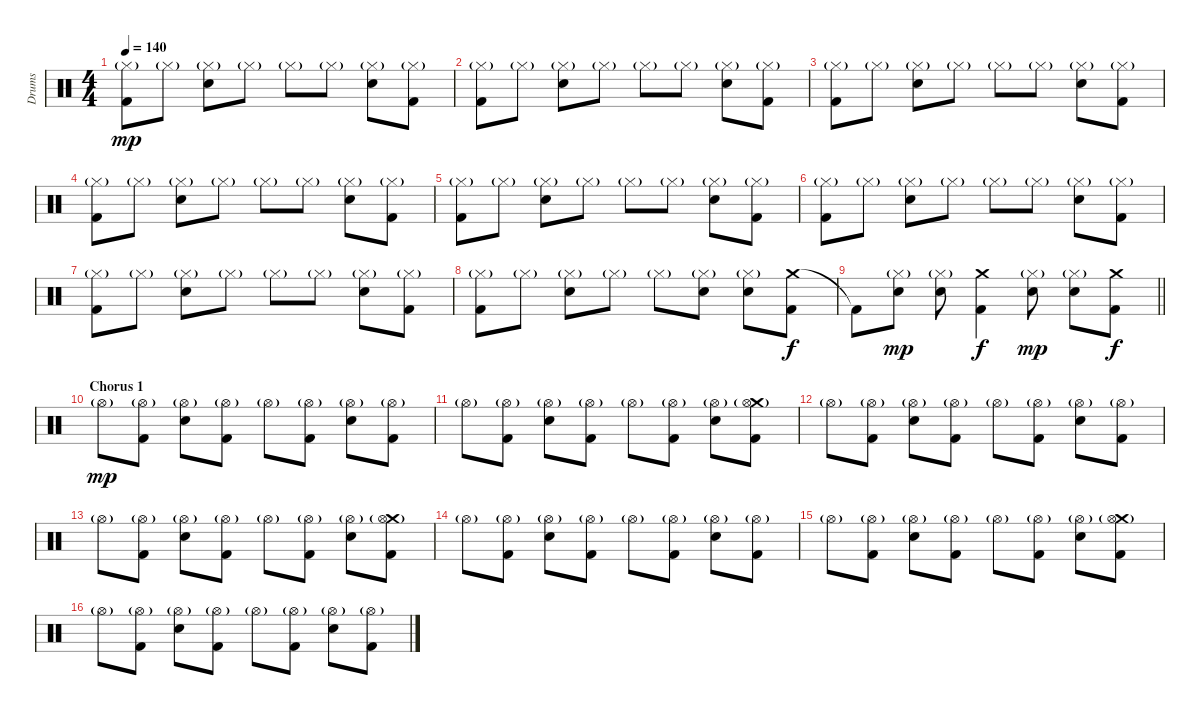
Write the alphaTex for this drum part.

\track ("Drums" "Drums") {instrument percussion}
\staff {score}
\articulation defaults
\ts (4 4)
\tempo 140
\clef neutral
\ks c
("Hi-Hat (closed)"{g} "Kick (hit) 2").8{dy mp} "Hi-Hat (closed)"{g}.8 ("Hi-Hat (closed)"{g} "Electric Snare (hit)").8 "Hi-Hat (closed)"{g}.8 "Hi-Hat (closed)"{g}.8 "Hi-Hat (closed)"{g}.8 ("Hi-Hat (closed)"{g} "Electric Snare (hit)").8 ("Hi-Hat (closed)"{g} "Kick (hit) 2").8 |
("Hi-Hat (closed)"{g} "Kick (hit) 2").8 "Hi-Hat (closed)"{g}.8 ("Hi-Hat (closed)"{g} "Electric Snare (hit)").8 "Hi-Hat (closed)"{g}.8 "Hi-Hat (closed)"{g}.8 "Hi-Hat (closed)"{g}.8 ("Hi-Hat (closed)"{g} "Electric Snare (hit)").8 ("Hi-Hat (closed)"{g} "Kick (hit) 2").8 |
("Hi-Hat (closed)"{g} "Kick (hit) 2").8 "Hi-Hat (closed)"{g}.8 ("Hi-Hat (closed)"{g} "Electric Snare (hit)").8 "Hi-Hat (closed)"{g}.8 "Hi-Hat (closed)"{g}.8 "Hi-Hat (closed)"{g}.8 ("Hi-Hat (closed)"{g} "Electric Snare (hit)").8 ("Hi-Hat (closed)"{g} "Kick (hit) 2").8 |
("Hi-Hat (closed)"{g} "Kick (hit) 2").8 "Hi-Hat (closed)"{g}.8 ("Hi-Hat (closed)"{g} "Electric Snare (hit)").8 "Hi-Hat (closed)"{g}.8 "Hi-Hat (closed)"{g}.8 "Hi-Hat (closed)"{g}.8 ("Hi-Hat (closed)"{g} "Electric Snare (hit)").8 ("Hi-Hat (closed)"{g} "Kick (hit) 2").8 |
("Hi-Hat (closed)"{g} "Kick (hit) 2").8 "Hi-Hat (closed)"{g}.8 ("Hi-Hat (closed)"{g} "Electric Snare (hit)").8 "Hi-Hat (closed)"{g}.8 "Hi-Hat (closed)"{g}.8 "Hi-Hat (closed)"{g}.8 ("Hi-Hat (closed)"{g} "Electric Snare (hit)").8 ("Hi-Hat (closed)"{g} "Kick (hit) 2").8 |
("Hi-Hat (closed)"{g} "Kick (hit) 2").8 "Hi-Hat (closed)"{g}.8 ("Hi-Hat (closed)"{g} "Electric Snare (hit)").8 "Hi-Hat (closed)"{g}.8 "Hi-Hat (closed)"{g}.8 "Hi-Hat (closed)"{g}.8 ("Hi-Hat (closed)"{g} "Electric Snare (hit)").8 ("Hi-Hat (closed)"{g} "Kick (hit) 2").8 |
("Hi-Hat (closed)"{g} "Kick (hit) 2").8 "Hi-Hat (closed)"{g}.8 ("Hi-Hat (closed)"{g} "Electric Snare (hit)").8 "Hi-Hat (closed)"{g}.8 "Hi-Hat (closed)"{g}.8 "Hi-Hat (closed)"{g}.8 ("Hi-Hat (closed)"{g} "Electric Snare (hit)").8 ("Hi-Hat (closed)"{g} "Kick (hit) 2").8 |
("Hi-Hat (closed)"{g} "Kick (hit) 2").8 "Hi-Hat (closed)"{g}.8 ("Hi-Hat (closed)"{g} "Electric Snare (hit)").8 "Hi-Hat (closed)"{g}.8 "Hi-Hat (closed)"{g}.8 ("Hi-Hat (closed)"{g} "Electric Snare (hit)").8 ("Hi-Hat (closed)"{g} "Electric Snare (hit)").8 ("Crash medium (hit)" "Kick (hit) 2").8{dy f} |
\barLineRight lightlight "Kick (hit) 2"{t}.8
("Hi-Hat (closed)"{g} "Electric Snare (hit)").8{dy mp} ("Hi-Hat (closed)"{g} "Electric Snare (hit)").8 ("Crash medium (hit)" "Kick (hit) 2").4{dy f} ("Hi-Hat (closed)"{g} "Electric Snare (hit)").8{dy mp} ("Hi-Hat (closed)"{g} "Electric Snare (hit)").8 ("Crash medium (hit)" "Kick (hit) 2").8{dy f} |
\section ("" "Chorus 1")
"Hi-Hat (open)"{g}.8{dy mp} ("Hi-Hat (open)"{g} "Kick (hit) 2").8 ("Hi-Hat (open)"{g} "Electric Snare (hit)").8 ("Hi-Hat (open)"{g} "Kick (hit) 2").8 "Hi-Hat (open)"{g}.8 ("Hi-Hat (open)"{g} "Kick (hit) 2").8 ("Hi-Hat (open)"{g} "Electric Snare (hit)").8 ("Hi-Hat (open)"{g} "Kick (hit) 2").8 |
"Hi-Hat (open)"{g}.8 ("Hi-Hat (open)"{g} "Kick (hit) 2").8 ("Hi-Hat (open)"{g} "Electric Snare (hit)").8 ("Hi-Hat (open)"{g} "Kick (hit) 2").8 "Hi-Hat (open)"{g}.8 ("Hi-Hat (open)"{g} "Kick (hit) 2").8 ("Hi-Hat (open)"{g} "Electric Snare (hit)").8 ("Crash medium (hit)" "Hi-Hat (open)"{g} "Kick (hit) 2").8 |
"Hi-Hat (open)"{g}.8 ("Hi-Hat (open)"{g} "Kick (hit) 2").8 ("Hi-Hat (open)"{g} "Electric Snare (hit)").8 ("Hi-Hat (open)"{g} "Kick (hit) 2").8 "Hi-Hat (open)"{g}.8 ("Hi-Hat (open)"{g} "Kick (hit) 2").8 ("Hi-Hat (open)"{g} "Electric Snare (hit)").8 ("Hi-Hat (open)"{g} "Kick (hit) 2").8 |
"Hi-Hat (open)"{g}.8 ("Hi-Hat (open)"{g} "Kick (hit) 2").8 ("Hi-Hat (open)"{g} "Electric Snare (hit)").8 ("Hi-Hat (open)"{g} "Kick (hit) 2").8 "Hi-Hat (open)"{g}.8 ("Hi-Hat (open)"{g} "Kick (hit) 2").8 ("Hi-Hat (open)"{g} "Electric Snare (hit)").8 ("Crash medium (hit)" "Hi-Hat (open)"{g} "Kick (hit) 2").8 |
"Hi-Hat (open)"{g}.8 ("Hi-Hat (open)"{g} "Kick (hit) 2").8 ("Hi-Hat (open)"{g} "Electric Snare (hit)").8 ("Hi-Hat (open)"{g} "Kick (hit) 2").8 "Hi-Hat (open)"{g}.8 ("Hi-Hat (open)"{g} "Kick (hit) 2").8 ("Hi-Hat (open)"{g} "Electric Snare (hit)").8 ("Hi-Hat (open)"{g} "Kick (hit) 2").8 |
"Hi-Hat (open)"{g}.8 ("Hi-Hat (open)"{g} "Kick (hit) 2").8 ("Hi-Hat (open)"{g} "Electric Snare (hit)").8 ("Hi-Hat (open)"{g} "Kick (hit) 2").8 "Hi-Hat (open)"{g}.8 ("Hi-Hat (open)"{g} "Kick (hit) 2").8 ("Hi-Hat (open)"{g} "Electric Snare (hit)").8 ("Crash medium (hit)" "Hi-Hat (open)"{g} "Kick (hit) 2").8 |
"Hi-Hat (open)"{g}.8 ("Hi-Hat (open)"{g} "Kick (hit) 2").8 ("Hi-Hat (open)"{g} "Electric Snare (hit)").8 ("Hi-Hat (open)"{g} "Kick (hit) 2").8 "Hi-Hat (open)"{g}.8 ("Hi-Hat (open)"{g} "Kick (hit) 2").8 ("Hi-Hat (open)"{g} "Electric Snare (hit)").8 ("Hi-Hat (open)"{g} "Kick (hit) 2").8
